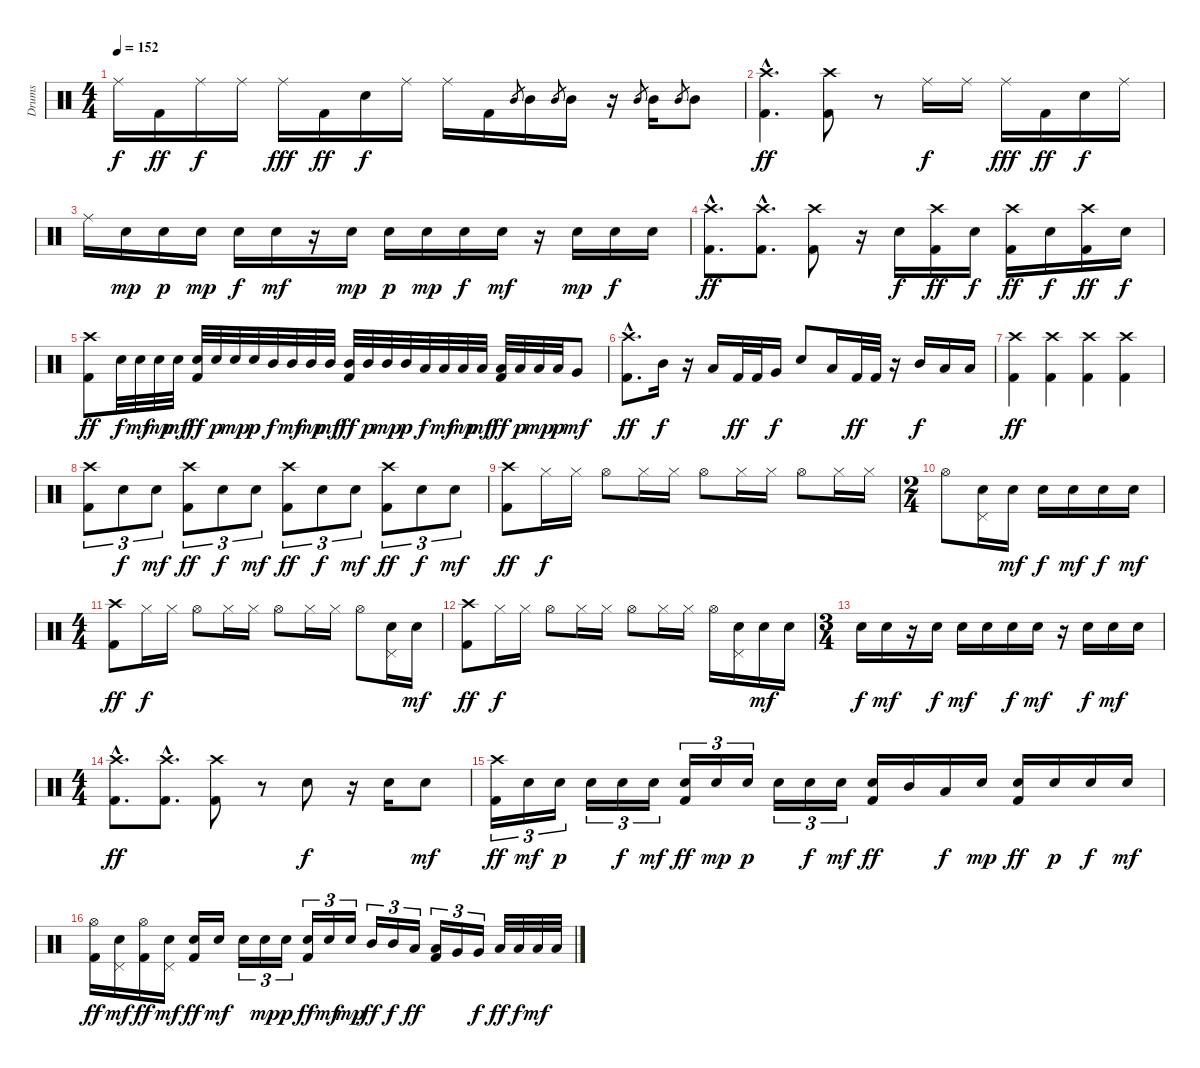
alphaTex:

\track ("Drums" "Drums") {instrument percussion}
\staff {score}
\articulation defaults
\ts (4 4)
\tempo 152
\clef neutral
\ks c "Ride (middle)".16{dy f} "Kick (hit) 2".16{dy ff} "Ride (middle)".16{dy f} "Ride (middle)".16 "Ride (middle)".16{dy fff} "Kick (hit) 2".16{dy ff} "Snare (hit) 2".16{dy f} "Ride (middle)".16 "Ride (middle)".16 "Kick (hit) 2".16 "Mid Tom (hit)".8{gr} "Mid Tom (hit)".16 "Mid Tom (hit)".8{gr} "Mid Tom (hit)".16
r.16 "Mid Tom (hit)".8{gr} "Mid Tom (hit)".16 "Mid Tom (hit)".8{gr} "Mid Tom (hit)".8 |
("Crash high (hit)"{hac} "Kick (hit) 2"{hac}).4{d dy ff} ("Crash high (hit)" "Kick (hit) 2").8 r.8 "Ride (middle)".16{dy f} "Ride (middle)".16 "Ride (middle)".16{dy fff} "Kick (hit) 2".16{dy ff} "Snare (hit) 2".16{dy f} "Ride (middle)".16 |
"Ride (middle)".16 "Snare (hit) 2".16{dy mp} "Snare (hit) 2".16{dy p} "Snare (hit) 2".16{dy mp} "Snare (hit) 2".16{dy f} "Snare (hit) 2".16{dy mf} r.16 "Snare (hit) 2".16{dy mp} "Snare (hit) 2".16{dy p} "Snare (hit) 2".16{dy mp} "Snare (hit) 2".16{dy f} "Snare (hit) 2".16{dy mf} r.16 "Snare (hit) 2".16{dy mp} "Snare (hit) 2".16{dy f} "Snare (hit) 2".16 |
("Crash high (hit)"{hac} "Kick (hit) 2"{hac}).8{d dy ff} ("Crash high (hit)"{hac} "Kick (hit) 2"{hac}).8{d} ("Crash high (hit)" "Kick (hit) 2").8 r.16 "Snare (hit) 2".16{dy f} ("Crash high (hit)" "Kick (hit) 2").16{dy ff} "Snare (hit) 2".16{dy f} ("Crash high (hit)" "Kick (hit) 2").16{dy ff} "Snare (hit) 2".16{dy f} ("Crash high (hit)" "Kick (hit) 2").16{dy ff} "Snare (hit) 2".16{dy f} |
("Crash high (hit)" "Kick (hit) 2").8{dy ff} "Snare (hit) 2".32{dy f} "Snare (hit) 2".32{dy mf} "Snare (hit) 2".32{dy mp} "Snare (hit) 2".32{dy mf} ("Snare (hit) 2" "Kick (hit) 2").32{dy ff} "Snare (hit) 2".32{dy p} "Snare (hit) 2".32{dy mp} "Snare (hit) 2".32{dy p} "Mid Tom (hit)".32{dy f} "Mid Tom (hit)".32{dy mf} "Mid Tom (hit)".32{dy mp} "Mid Tom (hit)".32{dy mf} ("Mid Tom (hit)" "Kick (hit) 2").32{dy ff} "Mid Tom (hit)".32{dy p} "Mid Tom (hit)".32{dy mp} "Mid Tom (hit)".32{dy p} "Low Tom (hit)".32{dy f} "Low Tom (hit)".32{dy mf} "Low Tom (hit)".32{dy mp} "Low Tom (hit)".32{dy mf} ("Low Tom (hit)" "Kick (hit) 2").32{dy ff} "Low Tom (hit)".32{dy p} "Low Tom (hit)".32{dy mp} "Low Tom (hit)".32{dy p} "Very Low Tom (hit)".8{dy mf} |
("Crash high (hit)"{hac} "Kick (hit) 2"{hac}).8{d dy ff} "Mid Tom (hit)".16{dy f} r.16 "Low Tom (hit)".16 "Kick (hit) 2".32{dy ff} "Kick (hit) 2".32 "Very Low Tom (hit)".16{dy f} "Snare (hit) 2".8 "Low Tom (hit)".16 "Kick (hit) 2".32{dy ff} "Kick (hit) 2".32 r.16 "Mid Tom (hit)".16{dy f} "Low Tom (hit)".16 "Low Tom (hit)".16 |
("Crash high (hit)" "Kick (hit) 2").4{dy ff} ("Crash high (hit)" "Kick (hit) 2").4 ("Crash high (hit)" "Kick (hit) 2").4 ("Crash high (hit)" "Kick (hit) 2").4 |
("Crash high (hit)" "Kick (hit) 2").8{tu (3 2)} "Snare (hit) 2".8{tu (3 2) dy f} "Snare (hit) 2".8{tu (3 2) dy mf} ("Crash high (hit)" "Kick (hit) 2").8{tu (3 2) dy ff} "Snare (hit) 2".8{tu (3 2) dy f} "Snare (hit) 2".8{tu (3 2) dy mf} ("Crash high (hit)" "Kick (hit) 2").8{tu (3 2) dy ff} "Snare (hit) 2".8{tu (3 2) dy f} "Snare (hit) 2".8{tu (3 2) dy mf} ("Crash high (hit)" "Kick (hit) 2").8{tu (3 2) dy ff} "Snare (hit) 2".8{tu (3 2) dy f} "Snare (hit) 2".8{tu (3 2) dy mf} |
("Crash high (hit)" "Kick (hit) 2").8{dy ff} "Hi-Hat (closed)".16{dy f} "Hi-Hat (closed)".16 "Hi-Hat (open)".8 "Hi-Hat (closed)".16 "Hi-Hat (closed)".16 "Hi-Hat (open)".8 "Hi-Hat (closed)".16 "Hi-Hat (closed)".16 "Hi-Hat (open)".8 "Hi-Hat (closed)".16 "Hi-Hat (closed)".16 |
\ts (2 4)
"Hi-Hat (open)".8 ("Pedal Hi-Hat (hit)" "Snare (hit) 2").16 "Snare (hit) 2".16{dy mf} "Snare (hit) 2".16{dy f} "Snare (hit) 2".16{dy mf} "Snare (hit) 2".16{dy f} "Snare (hit) 2".16{dy mf} |
\ts (4 4)
("Crash high (hit)" "Kick (hit) 2").8{dy ff} "Hi-Hat (closed)".16{dy f} "Hi-Hat (closed)".16 "Hi-Hat (open)".8 "Hi-Hat (closed)".16 "Hi-Hat (closed)".16 "Hi-Hat (open)".8 "Hi-Hat (closed)".16 "Hi-Hat (closed)".16 "Hi-Hat (open)".8 ("Pedal Hi-Hat (hit)" "Snare (hit) 2").16 "Snare (hit) 2".16{dy mf} |
("Crash high (hit)" "Kick (hit) 2").8{dy ff} "Hi-Hat (closed)".16{dy f} "Hi-Hat (closed)".16 "Hi-Hat (open)".8 "Hi-Hat (closed)".16 "Hi-Hat (closed)".16 "Hi-Hat (open)".8 "Hi-Hat (closed)".16 "Hi-Hat (closed)".16 "Hi-Hat (open)".16 ("Pedal Hi-Hat (hit)" "Snare (hit) 2").16 "Snare (hit) 2".16{dy mf} "Snare (hit) 2".16 |
\ts (3 4)
"Snare (hit) 2".16{dy f} "Snare (hit) 2".16{dy mf} r.16 "Snare (hit) 2".16{dy f} "Snare (hit) 2".16{dy mf} "Snare (hit) 2".16 "Snare (hit) 2".16{dy f} "Snare (hit) 2".16{dy mf} r.16 "Snare (hit) 2".16{dy f} "Snare (hit) 2".16{dy mf} "Snare (hit) 2".16 |
\ts (4 4)
("Crash high (hit)"{hac} "Kick (hit) 2"{hac}).8{d dy ff} ("Crash high (hit)"{hac} "Kick (hit) 2"{hac}).8{d} ("Crash high (hit)" "Kick (hit) 2").8 r.8 "Snare (hit) 2".8{dy f} r.16 "Snare (hit) 2".16 "Snare (hit) 2".8{dy mf} |
("Crash high (hit)" "Kick (hit) 2").16{tu (3 2) dy ff} "Snare (hit) 2".16{tu (3 2) dy mf} "Snare (hit) 2".16{tu (3 2) dy p} "Snare (hit) 2".16{tu (3 2)} "Snare (hit) 2".16{tu (3 2) dy f} "Snare (hit) 2".16{tu (3 2) dy mf} ("Snare (hit) 2" "Kick (hit) 2").16{tu (3 2) dy ff} "Snare (hit) 2".16{tu (3 2) dy mp} "Snare (hit) 2".16{tu (3 2) dy p} "Snare (hit) 2".16{tu (3 2)} "Snare (hit) 2".16{tu (3 2) dy f} "Snare (hit) 2".16{tu (3 2) dy mf} ("Snare (hit) 2" "Kick (hit) 2").16{dy ff} "Mid Tom (hit)".16 "Low Tom (hit)".16{dy f} "Snare (hit) 2".16{dy mp} ("Snare (hit) 2" "Kick (hit) 2").16{dy ff} "Snare (hit) 2".16{dy p} "Snare (hit) 2".16{dy f} "Snare (hit) 2".16{dy mf} |
("Hi-Hat (open)" "Kick (hit) 2").16{dy ff} ("Pedal Hi-Hat (hit)" "Snare (hit) 2").16{dy mf} ("Hi-Hat (open)" "Kick (hit) 2").16{dy ff} ("Pedal Hi-Hat (hit)" "Snare (hit) 2").16{dy mf} ("Snare (hit) 2" "Kick (hit) 2").16{dy ff} "Snare (hit) 2".16{dy mf} "Snare (hit) 2".16{tu (3 2)} "Snare (hit) 2".16{tu (3 2) dy mp} "Snare (hit) 2".16{tu (3 2) dy p} ("Snare (hit) 2" "Kick (hit) 2").16{tu (3 2) dy ff} "Snare (hit) 2".16{tu (3 2) dy mf} "Snare (hit) 2".16{tu (3 2) dy mp} "Mid Tom (hit)".16{tu (3 2) dy ff} "Mid Tom (hit)".16{tu (3 2) dy f} "Low Tom (hit)".16{tu (3 2) dy ff} ("Low Tom (hit)" "Kick (hit) 2").16{tu (3 2)} "Very Low Tom (hit)".16{tu (3 2)} "Very Low Tom (hit)".16{tu (3 2) dy f} "Low Floor Tom (hit)".32{dy ff} "Low Floor Tom (hit)".32{dy f} "Low Floor Tom (hit)".32{dy mf} "Low Floor Tom (hit)".32
